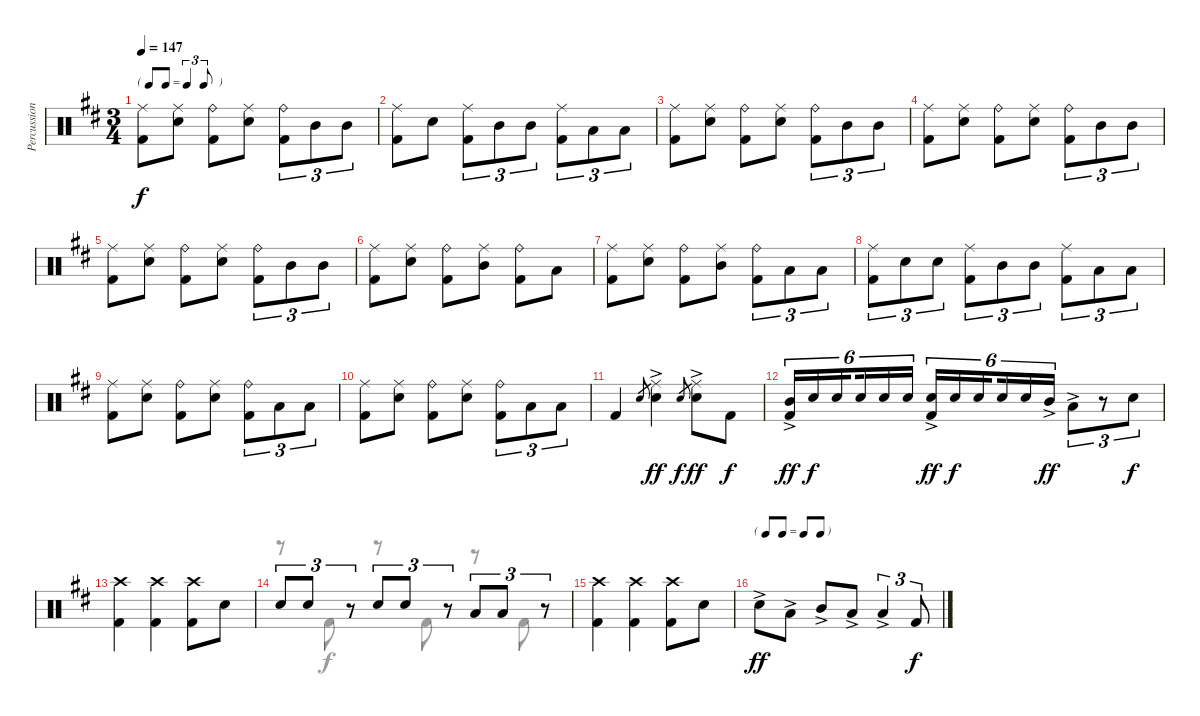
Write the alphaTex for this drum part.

\track ("Percussion" "Percussion") {instrument percussion}
\staff {score}
\articulation defaults
\voice
\ts (3 4)
\tf triplet8th
\tempo 147
\clef neutral
\ks d
("Ride (middle)" "Kick (hit) 2").8{dy f} ("Ride (middle)" "Snare (hit) 2").8 ("Ride (bell)" "Kick (hit) 2").8 ("Ride (middle)" "Snare (hit) 2").8 ("Ride (bell)" "Kick (hit) 2").8{tu (3 2)} "Mid Tom (hit)".8{tu (3 2)} "Mid Tom (hit)".8{tu (3 2)} |
("Ride (middle)" "Kick (hit) 2").8 "Snare (hit) 2".8 ("Ride (middle)" "Kick (hit) 2").8{tu (3 2)} "Mid Tom (hit)".8{tu (3 2)} "Mid Tom (hit)".8{tu (3 2)} ("Ride (middle)" "Kick (hit) 2").8{tu (3 2)} "Low Tom (hit)".8{tu (3 2)} "Low Tom (hit)".8{tu (3 2)} |
("Ride (middle)" "Kick (hit) 2").8 ("Ride (middle)" "Snare (hit) 2").8 ("Ride (bell)" "Kick (hit) 2").8 ("Ride (middle)" "Snare (hit) 2").8 ("Ride (bell)" "Kick (hit) 2").8{tu (3 2)} "Mid Tom (hit)".8{tu (3 2)} "Mid Tom (hit)".8{tu (3 2)} |
("Ride (middle)" "Kick (hit) 2").8 ("Ride (middle)" "Snare (hit) 2").8 ("Ride (bell)" "Kick (hit) 2").8 ("Ride (middle)" "Snare (hit) 2").8 ("Ride (bell)" "Kick (hit) 2").8{tu (3 2)} "Mid Tom (hit)".8{tu (3 2)} "Mid Tom (hit)".8{tu (3 2)} |
("Ride (middle)" "Kick (hit) 2").8 ("Ride (middle)" "Snare (hit) 2").8 ("Ride (bell)" "Kick (hit) 2").8 ("Ride (middle)" "Snare (hit) 2").8 ("Ride (bell)" "Kick (hit) 2").8{tu (3 2)} "Mid Tom (hit)".8{tu (3 2)} "Mid Tom (hit)".8{tu (3 2)} |
("Ride (middle)" "Kick (hit) 2").8 ("Ride (middle)" "Snare (hit) 2").8 ("Ride (bell)" "Kick (hit) 2").8 ("Ride (middle)" "Mid Tom (hit)").8 ("Ride (bell)" "Kick (hit) 2").8 "Low Tom (hit)".8 |
("Ride (middle)" "Kick (hit) 2").8 ("Ride (middle)" "Snare (hit) 2").8 ("Ride (bell)" "Kick (hit) 2").8 ("Ride (middle)" "Mid Tom (hit)").8 ("Ride (bell)" "Kick (hit) 2").8{tu (3 2)} "Low Tom (hit)".8{tu (3 2)} "Low Tom (hit)".8{tu (3 2)} |
("Ride (middle)" "Kick (hit) 2").8{tu (3 2)} "Snare (hit) 2".8{tu (3 2)} "Snare (hit) 2".8{tu (3 2)} ("Ride (middle)" "Kick (hit) 2").8{tu (3 2)} "Mid Tom (hit)".8{tu (3 2)} "Mid Tom (hit)".8{tu (3 2)} ("Ride (middle)" "Kick (hit) 2").8{tu (3 2)} "Low Tom (hit)".8{tu (3 2)} "Low Tom (hit)".8{tu (3 2)} |
("Ride (middle)" "Kick (hit) 2").8 ("Ride (middle)" "Snare (hit) 2").8 ("Ride (bell)" "Kick (hit) 2").8 ("Ride (middle)" "Snare (hit) 2").8 ("Ride (bell)" "Kick (hit) 2").8{tu (3 2)} "Low Floor Tom (hit)".8{tu (3 2)} "Low Floor Tom (hit)".8{tu (3 2)} |
("Ride (middle)" "Kick (hit) 2").8 ("Ride (middle)" "Snare (hit) 2").8 ("Ride (bell)" "Kick (hit) 2").8 ("Ride (middle)" "Snare (hit) 2").8 ("Ride (bell)" "Kick (hit) 2").8{tu (3 2)} "Low Floor Tom (hit)".8{tu (3 2)} "Low Floor Tom (hit)".8{tu (3 2)} |
"Kick (hit) 2".4 "Snare (hit) 2".8{gr} ("Ride (middle)" "Snare (hit) 2"{ac}).4{dy ff} "Snare (hit) 2".8{gr dy f} ("Ride (middle)" "Snare (hit) 2"{ac}).8{dy ff} "Kick (hit) 2".8{dy f} |
("Mid Tom (hit)"{ac} "Kick (hit) 2").16{tu (6 4) dy ff} "Snare (hit) 2".16{tu (6 4) dy f} "Snare (hit) 2".16{tu (6 4) beam splitsecondary} "Snare (hit) 2".16{tu (6 4)} "Snare (hit) 2".16{tu (6 4)} "Snare (hit) 2".16{tu (6 4)} ("Snare (hit) 2"{ac} "Kick (hit) 2").16{tu (6 4) dy ff} "Snare (hit) 2".16{tu (6 4) dy f} "Snare (hit) 2".16{tu (6 4) beam splitsecondary} "Snare (hit) 2".16{tu (6 4)} "Snare (hit) 2".16{tu (6 4)} "Mid Tom (hit)"{ac}.16{tu (6 4) dy ff} "Low Tom (hit)"{ac}.8{tu (3 2)} r.8{tu (3 2)} "Snare (hit) 2".8{tu (3 2) dy f} |
("Crash high (hit)" "Kick (hit) 2").4 ("Crash high (hit)" "Kick (hit) 2").4 ("Crash high (hit)" "Kick (hit) 2").8 "Snare (hit) 2".8 |
"Snare (hit) 2".8{tu (3 2)} "Snare (hit) 2".8{tu (3 2)} r.8{tu (3 2)} "Snare (hit) 2".8{tu (3 2)} "Snare (hit) 2".8{tu (3 2)} r.8{tu (3 2)} "Low Floor Tom (hit)".8{tu (3 2)} "Low Tom (hit)".8{tu (3 2)} r.8{tu (3 2)} |
("Crash high (hit)" "Kick (hit) 2").4 ("Crash high (hit)" "Kick (hit) 2").4 ("Crash high (hit)" "Kick (hit) 2").8 "Snare (hit) 2".8 |
\tf none "Snare (hit) 2"{ac}.8{dy ff} "Low Tom (hit)"{ac}.8 "Mid Tom (hit)"{ac}.8 "Low Floor Tom (hit)"{ac}.8 "Low Floor Tom (hit)"{ac}.4{tu (3 2)} "Kick (hit) 2".8{tu (3 2) dy f}
\voice
\clef neutral
\ottava regular
\simile none
\ks d
|
|
|
|
|
|
|
|
|
|
|
|
|
r.8 "Kick (hit) 2".8 r.8 "Kick (hit) 2".8 r.8 "Kick (hit) 2".8 |
|
